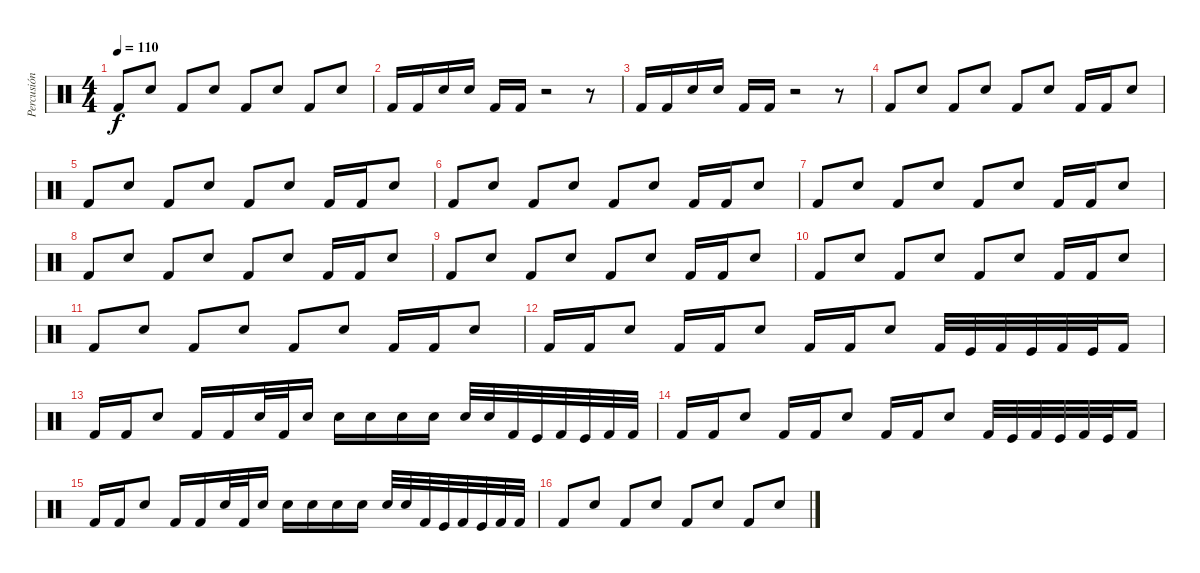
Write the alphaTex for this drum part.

\track ("Percusión" "Percusión") {instrument percussion}
\staff {score}
\articulation defaults
\ts (4 4)
\tempo 110
\clef neutral
\ks c "Kick (hit) 2".8{dy f} "Electric Snare (hit)".8 "Kick (hit) 2".8 "Electric Snare (hit)".8 "Kick (hit) 2".8 "Electric Snare (hit)".8 "Kick (hit) 2".8 "Electric Snare (hit)".8
|
"Kick (hit) 2".16 "Kick (hit) 2".16 "Electric Snare (hit)".16 "Electric Snare (hit)".16 "Kick (hit) 2".16 "Kick (hit) 2".16 r.2 r.8 |
"Kick (hit) 2".16 "Kick (hit) 2".16 "Electric Snare (hit)".16 "Electric Snare (hit)".16 "Kick (hit) 2".16 "Kick (hit) 2".16 r.2 r.8 |
"Kick (hit) 2".8 "Electric Snare (hit)".8 "Kick (hit) 2".8 "Electric Snare (hit)".8 "Kick (hit) 2".8 "Electric Snare (hit)".8 "Kick (hit) 2".16 "Kick (hit) 2".16 "Electric Snare (hit)".8 |
"Kick (hit) 2".8 "Electric Snare (hit)".8 "Kick (hit) 2".8 "Electric Snare (hit)".8 "Kick (hit) 2".8 "Electric Snare (hit)".8 "Kick (hit) 2".16 "Kick (hit) 2".16 "Electric Snare (hit)".8 |
"Kick (hit) 2".8 "Electric Snare (hit)".8 "Kick (hit) 2".8 "Electric Snare (hit)".8 "Kick (hit) 2".8 "Electric Snare (hit)".8 "Kick (hit) 2".16 "Kick (hit) 2".16 "Electric Snare (hit)".8 |
"Kick (hit) 2".8 "Electric Snare (hit)".8 "Kick (hit) 2".8 "Electric Snare (hit)".8 "Kick (hit) 2".8 "Electric Snare (hit)".8 "Kick (hit) 2".16 "Kick (hit) 2".16 "Electric Snare (hit)".8 |
"Kick (hit) 2".8 "Electric Snare (hit)".8 "Kick (hit) 2".8 "Electric Snare (hit)".8 "Kick (hit) 2".8 "Electric Snare (hit)".8 "Kick (hit) 2".16 "Kick (hit) 2".16 "Electric Snare (hit)".8 |
"Kick (hit) 2".8 "Electric Snare (hit)".8 "Kick (hit) 2".8 "Electric Snare (hit)".8 "Kick (hit) 2".8 "Electric Snare (hit)".8 "Kick (hit) 2".16 "Kick (hit) 2".16 "Electric Snare (hit)".8 |
"Kick (hit) 2".8 "Electric Snare (hit)".8 "Kick (hit) 2".8 "Electric Snare (hit)".8 "Kick (hit) 2".8 "Electric Snare (hit)".8 "Kick (hit) 2".16 "Kick (hit) 2".16 "Electric Snare (hit)".8 |
"Kick (hit) 2".8 "Electric Snare (hit)".8 "Kick (hit) 2".8 "Electric Snare (hit)".8 "Kick (hit) 2".8 "Electric Snare (hit)".8 "Kick (hit) 2".16 "Kick (hit) 2".16 "Electric Snare (hit)".8 |
"Kick (hit) 2".16 "Kick (hit) 2".16 "Electric Snare (hit)".8 "Kick (hit) 2".16 "Kick (hit) 2".16 "Electric Snare (hit)".8 "Kick (hit) 2".16 "Kick (hit) 2".16 "Electric Snare (hit)".8 "Kick (hit) 2".32 "Kick (hit)".32 "Kick (hit) 2".32 "Kick (hit)".32 "Kick (hit) 2".32 "Kick (hit)".32 "Kick (hit) 2".16 |
"Kick (hit) 2".16 "Kick (hit) 2".16 "Electric Snare (hit)".8 "Kick (hit) 2".16 "Kick (hit) 2".16 "Electric Snare (hit)".32 "Kick (hit) 2".32 "Electric Snare (hit)".16 "Electric Snare (hit)".16 "Electric Snare (hit)".16 "Electric Snare (hit)".16 "Electric Snare (hit)".16 "Electric Snare (hit)".32 "Electric Snare (hit)".32 "Kick (hit) 2".32 "Kick (hit)".32 "Kick (hit) 2".32 "Kick (hit)".32 "Kick (hit) 2".32 "Kick (hit) 2".32 |
"Kick (hit) 2".16 "Kick (hit) 2".16 "Electric Snare (hit)".8 "Kick (hit) 2".16 "Kick (hit) 2".16 "Electric Snare (hit)".8 "Kick (hit) 2".16 "Kick (hit) 2".16 "Electric Snare (hit)".8 "Kick (hit) 2".32 "Kick (hit)".32 "Kick (hit) 2".32 "Kick (hit)".32 "Kick (hit) 2".32 "Kick (hit)".32 "Kick (hit) 2".16 |
"Kick (hit) 2".16 "Kick (hit) 2".16 "Electric Snare (hit)".8 "Kick (hit) 2".16 "Kick (hit) 2".16 "Electric Snare (hit)".32 "Kick (hit) 2".32 "Electric Snare (hit)".16 "Electric Snare (hit)".16 "Electric Snare (hit)".16 "Electric Snare (hit)".16 "Electric Snare (hit)".16 "Electric Snare (hit)".32 "Electric Snare (hit)".32 "Kick (hit) 2".32 "Kick (hit)".32 "Kick (hit) 2".32 "Kick (hit)".32 "Kick (hit) 2".32 "Kick (hit) 2".32 |
"Kick (hit) 2".8 "Electric Snare (hit)".8 "Kick (hit) 2".8 "Electric Snare (hit)".8 "Kick (hit) 2".8 "Electric Snare (hit)".8 "Kick (hit) 2".8 "Electric Snare (hit)".8
